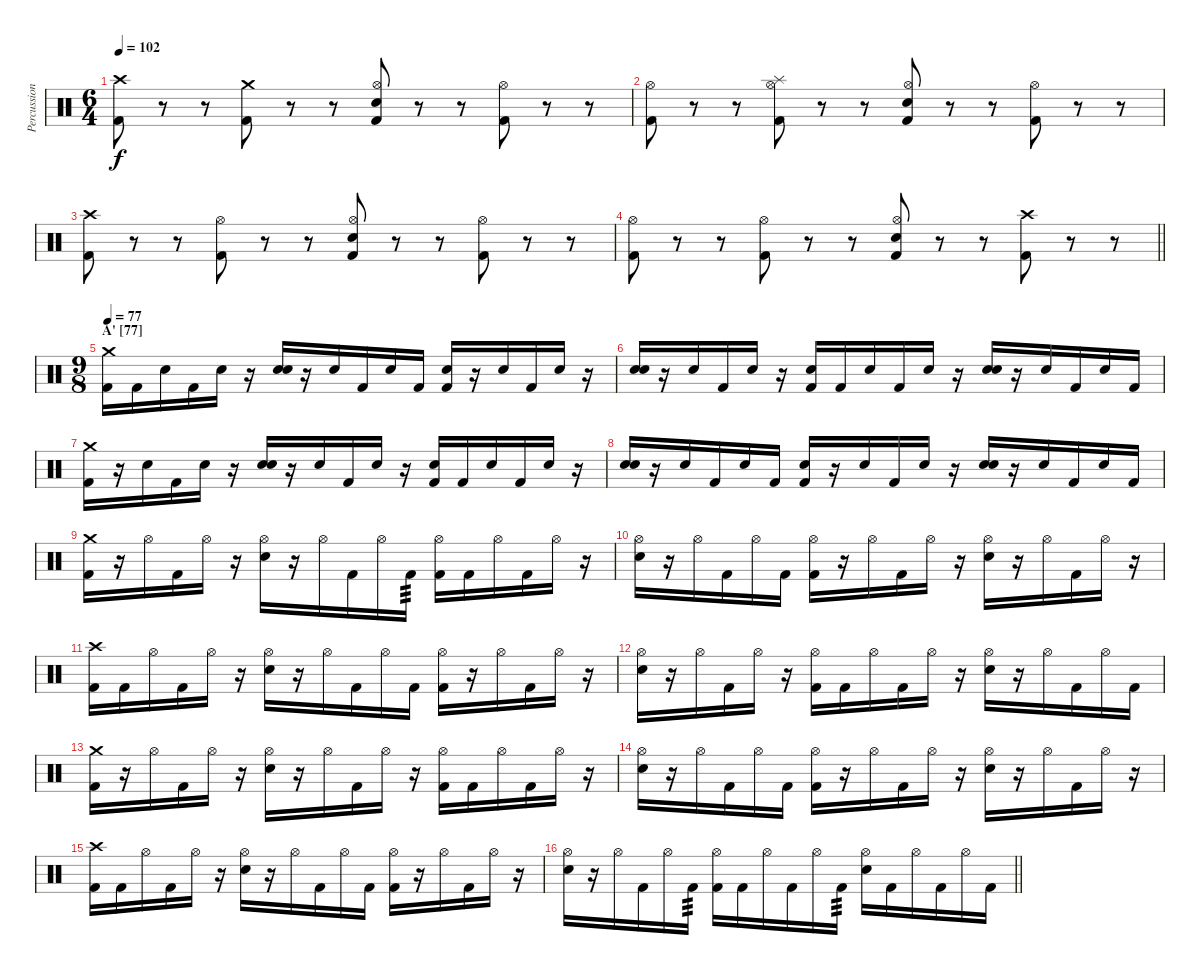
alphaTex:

\track ("Percussion" "Percussion") {instrument percussion}
\staff {score}
\articulation defaults
\ts (6 4)
\tempo 102
\clef neutral
\ks c
("Crash high (hit)" "Kick (hit) 2").8{dy f} r.8 r.8 ("Crash medium (hit)" "Kick (hit) 2").8 r.8 r.8 ("Hi-Hat (open)" "Snare (hit) 2" "Kick (hit) 2").8 r.8 r.8 ("Hi-Hat (open)" "Kick (hit) 2").8 r.8 r.8 |
("Hi-Hat (open)" "Kick (hit) 2").8 r.8 r.8 ("Hi-Hat (open)" "Splash (hit)" "Kick (hit) 2").8 r.8 r.8 ("Hi-Hat (open)" "Snare (hit) 2" "Kick (hit) 2").8 r.8 r.8 ("Hi-Hat (open)" "Kick (hit) 2").8 r.8 r.8 |
("Crash high (hit)" "Kick (hit) 2").8 r.8 r.8 ("Hi-Hat (open)" "Kick (hit) 2").8 r.8 r.8 ("Hi-Hat (open)" "Snare (hit) 2" "Kick (hit) 2").8 r.8 r.8 ("Hi-Hat (open)" "Kick (hit) 2").8 r.8 r.8 |
\barLineRight lightlight
("Hi-Hat (open)" "Kick (hit) 2").8 r.8 r.8 ("Hi-Hat (open)" "Kick (hit) 2").8 r.8 r.8 ("Hi-Hat (open)" "Snare (hit) 2" "Kick (hit) 2").8 r.8 r.8 ("Crash high (hit)" "Kick (hit) 2").8 r.8 r.8 |
\ts (9 8)
\section ("" "A' [77]")
\tempo 77
("Crash medium (hit)" "Kick (hit) 2").16 "Kick (hit) 2".16 "Snare (hit)".16 "Kick (hit) 2".16 "Snare (hit)".16 r.16 ("Snare (hit)" "Snare (hit) 2").16 r.16 "Snare (hit)".16 "Kick (hit) 2".16 "Snare (hit)".16 "Kick (hit) 2".16 ("Snare (hit)" "Kick (hit) 2").16 r.16 "Snare (hit)".16 "Kick (hit) 2".16 "Snare (hit)".16 r.16 |
("Snare (hit)" "Snare (hit) 2").16 r.16 "Snare (hit)".16 "Kick (hit) 2".16 "Snare (hit)".16 r.16 ("Snare (hit)" "Kick (hit) 2").16 "Kick (hit) 2".16 "Snare (hit)".16 "Kick (hit) 2".16 "Snare (hit)".16 r.16 ("Snare (hit)" "Snare (hit) 2").16 r.16 "Snare (hit)".16 "Kick (hit) 2".16 "Snare (hit)".16 "Kick (hit) 2".16 |
("Crash medium (hit)" "Kick (hit) 2").16 r.16 "Snare (hit)".16 "Kick (hit) 2".16 "Snare (hit)".16 r.16 ("Snare (hit)" "Snare (hit) 2").16 r.16 "Snare (hit)".16 "Kick (hit) 2".16 "Snare (hit)".16 r.16 ("Snare (hit)" "Kick (hit) 2").16 "Kick (hit) 2".16 "Snare (hit)".16 "Kick (hit) 2".16 "Snare (hit)".16 r.16 |
("Snare (hit)" "Snare (hit) 2").16 r.16 "Snare (hit)".16 "Kick (hit) 2".16 "Snare (hit)".16 "Kick (hit) 2".16 ("Snare (hit)" "Kick (hit) 2").16 r.16 "Snare (hit)".16 "Kick (hit) 2".16 "Snare (hit)".16 r.16 ("Snare (hit)" "Snare (hit) 2").16 r.16 "Snare (hit)".16 "Kick (hit) 2".16 "Snare (hit)".16 "Kick (hit) 2".16 |
("Crash medium (hit)" "Kick (hit) 2").16 r.16 "Hi-Hat (open)".16 "Kick (hit) 2".16 "Hi-Hat (open)".16 r.16 ("Hi-Hat (open)" "Snare (hit) 2").16 r.16 "Hi-Hat (open)".16 "Kick (hit) 2".16 "Hi-Hat (open)".16 "Kick (hit) 2".16{tp 3} ("Hi-Hat (open)" "Kick (hit) 2").16 "Kick (hit) 2".16 "Hi-Hat (open)".16 "Kick (hit) 2".16 "Hi-Hat (open)".16 r.16 |
("Hi-Hat (open)" "Snare (hit) 2").16 r.16 "Hi-Hat (open)".16 "Kick (hit) 2".16 "Hi-Hat (open)".16 "Kick (hit) 2".16 ("Hi-Hat (open)" "Kick (hit) 2").16 r.16 "Hi-Hat (open)".16 "Kick (hit) 2".16 "Hi-Hat (open)".16 r.16 ("Hi-Hat (open)" "Snare (hit) 2").16 r.16 "Hi-Hat (open)".16 "Kick (hit) 2".16 "Hi-Hat (open)".16 r.16 |
("Crash high (hit)" "Kick (hit) 2").16 "Kick (hit) 2".16 "Hi-Hat (open)".16 "Kick (hit) 2".16 "Hi-Hat (open)".16 r.16 ("Hi-Hat (open)" "Snare (hit) 2").16 r.16 "Hi-Hat (open)".16 "Kick (hit) 2".16 "Hi-Hat (open)".16 "Kick (hit) 2".16 ("Hi-Hat (open)" "Kick (hit) 2").16 r.16 "Hi-Hat (open)".16 "Kick (hit) 2".16 "Hi-Hat (open)".16 r.16 |
("Hi-Hat (open)" "Snare (hit) 2").16 r.16 "Hi-Hat (open)".16 "Kick (hit) 2".16 "Hi-Hat (open)".16 r.16 ("Hi-Hat (open)" "Kick (hit) 2").16 "Kick (hit) 2".16 "Hi-Hat (open)".16 "Kick (hit) 2".16 "Hi-Hat (open)".16 r.16 ("Hi-Hat (open)" "Snare (hit) 2").16 r.16 "Hi-Hat (open)".16 "Kick (hit) 2".16 "Hi-Hat (open)".16 "Kick (hit) 2".16 |
("Crash medium (hit)" "Kick (hit) 2").16 r.16 "Hi-Hat (open)".16 "Kick (hit) 2".16 "Hi-Hat (open)".16 r.16 ("Hi-Hat (open)" "Snare (hit) 2").16 r.16 "Hi-Hat (open)".16 "Kick (hit) 2".16 "Hi-Hat (open)".16 r.16 ("Hi-Hat (open)" "Kick (hit) 2").16 "Kick (hit) 2".16 "Hi-Hat (open)".16 "Kick (hit) 2".16 "Hi-Hat (open)".16 r.16 |
("Hi-Hat (open)" "Snare (hit) 2").16 r.16 "Hi-Hat (open)".16 "Kick (hit) 2".16 "Hi-Hat (open)".16 "Kick (hit) 2".16 ("Hi-Hat (open)" "Kick (hit) 2").16 r.16 "Hi-Hat (open)".16 "Kick (hit) 2".16 "Hi-Hat (open)".16 r.16 ("Hi-Hat (open)" "Snare (hit) 2").16 r.16 "Hi-Hat (open)".16 "Kick (hit) 2".16 "Hi-Hat (open)".16 r.16 |
("Crash high (hit)" "Kick (hit) 2").16 "Kick (hit) 2".16 "Hi-Hat (open)".16 "Kick (hit) 2".16 "Hi-Hat (open)".16 r.16 ("Hi-Hat (open)" "Snare (hit) 2").16 r.16 "Hi-Hat (open)".16 "Kick (hit) 2".16 "Hi-Hat (open)".16 "Kick (hit) 2".16 ("Hi-Hat (open)" "Kick (hit) 2").16 r.16 "Hi-Hat (open)".16 "Kick (hit) 2".16 "Hi-Hat (open)".16 r.16 |
\barLineRight lightlight
("Hi-Hat (open)" "Snare (hit) 2").16 r.16 "Hi-Hat (open)".16 "Kick (hit) 2".16 "Hi-Hat (open)".16 "Kick (hit) 2".16{tp 3} ("Hi-Hat (open)" "Kick (hit) 2").16 "Kick (hit) 2".16 "Hi-Hat (open)".16 "Kick (hit) 2".16 "Hi-Hat (open)".16 "Kick (hit) 2".16{tp 3} ("Hi-Hat (open)" "Snare (hit) 2").16 "Kick (hit) 2".16 "Hi-Hat (open)".16 "Kick (hit) 2".16 "Hi-Hat (open)".16 "Kick (hit) 2".16
